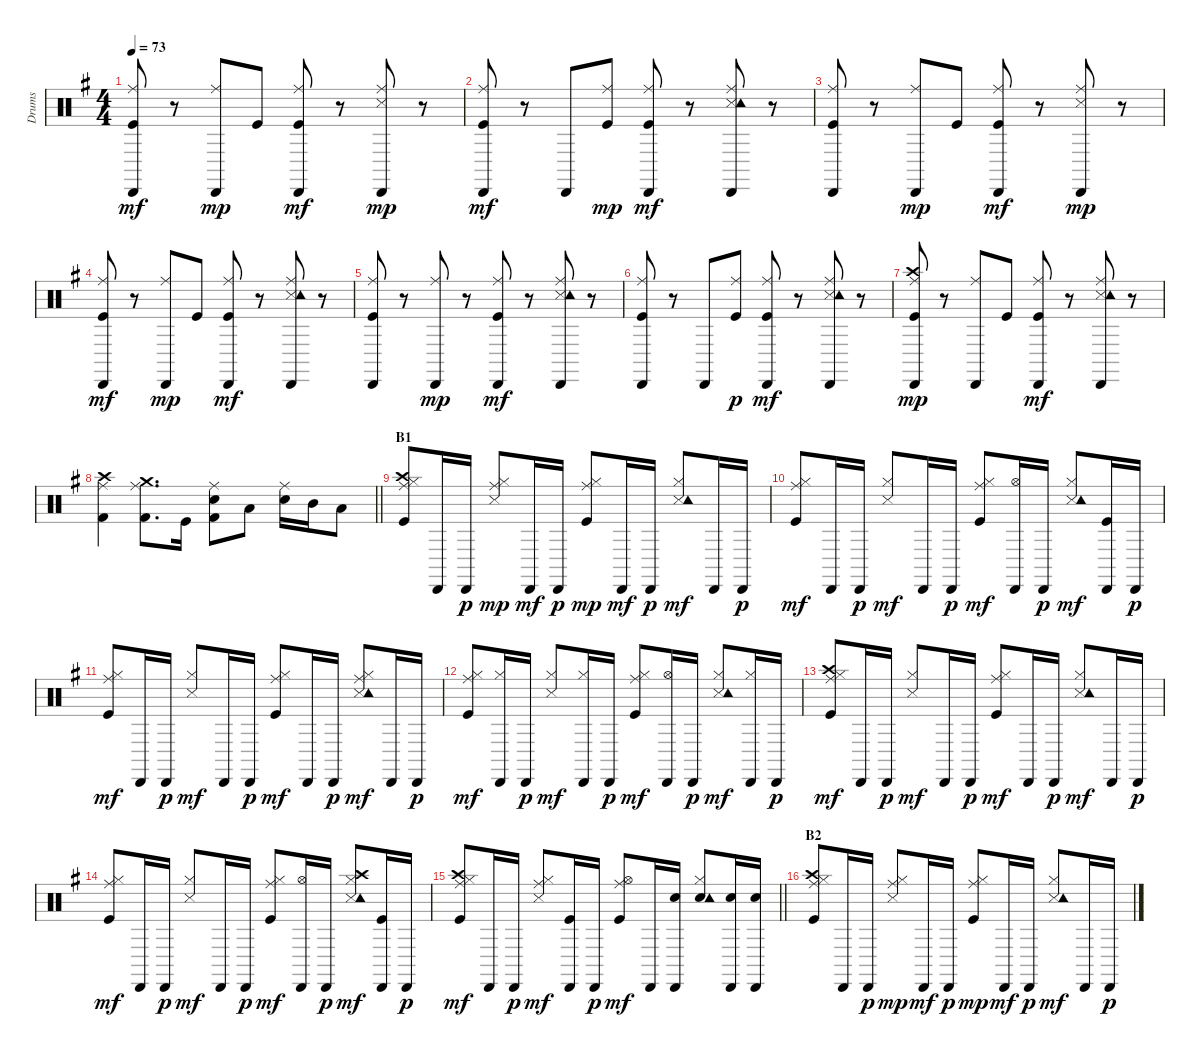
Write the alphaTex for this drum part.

\track ("Drums" "Drums") {instrument percussion}
\staff {score}
\articulation defaults
\ts (4 4)
\tempo 73
\clef neutral
\ks g
("Cabasa (hit)" "Ride (middle)" "Kick (hit)").8{dy mf} r.8 ("Cabasa (hit)" "Ride (middle)").8{dy mp} "Kick (hit)".8 ("Cabasa (hit)" "Ride (middle)" "Kick (hit)").8{dy mf} r.8 ("Cabasa (hit)" "Ride (middle)" "Snare (side stick) 3").8{dy mp} r.8 |
("Cabasa (hit)" "Ride (middle)" "Kick (hit)").8{dy mf} r.8 "Cabasa (hit)".8 ("Ride (middle)" "Kick (hit)").8{dy mp} ("Cabasa (hit)" "Ride (middle)" "Kick (hit)").8{dy mf} r.8 ("Cabasa (hit)" "Ride (middle)" "Snare (side stick) 3" "Tambourine (hit)").8 r.8 |
("Cabasa (hit)" "Ride (middle)" "Kick (hit)").8 r.8 ("Cabasa (hit)" "Ride (middle)").8{dy mp} "Kick (hit)".8 ("Cabasa (hit)" "Ride (middle)" "Kick (hit)").8{dy mf} r.8 ("Cabasa (hit)" "Ride (middle)" "Snare (side stick) 3").8{dy mp} r.8 |
("Cabasa (hit)" "Ride (middle)" "Kick (hit)").8{dy mf} r.8 ("Cabasa (hit)" "Ride (middle)").8{dy mp} "Kick (hit)".8 ("Cabasa (hit)" "Ride (middle)" "Kick (hit)").8{dy mf} r.8 ("Cabasa (hit)" "Ride (middle)" "Snare (side stick) 3" "Tambourine (hit)").8 r.8 |
("Cabasa (hit)" "Ride (middle)" "Kick (hit)").8 r.8 ("Cabasa (hit)" "Ride (middle)").8{dy mp} r.8 ("Cabasa (hit)" "Ride (middle)" "Kick (hit)").8{dy mf} r.8 ("Cabasa (hit)" "Ride (middle)" "Snare (side stick) 3" "Tambourine (hit)").8 r.8 |
("Cabasa (hit)" "Ride (middle)" "Kick (hit)").8 r.8 "Cabasa (hit)".8 ("Ride (middle)" "Kick (hit)").8{dy p} ("Cabasa (hit)" "Ride (middle)" "Kick (hit)").8{dy mf} r.8 ("Cabasa (hit)" "Ride (middle)" "Snare (side stick) 3" "Tambourine (hit)").8 r.8 |
("Cabasa (hit)" "Ride (middle)" "Kick (hit)" "Crash high (hit)").8{dy mp} r.8 ("Cabasa (hit)" "Ride (middle)").8 "Kick (hit)".8 ("Cabasa (hit)" "Ride (middle)" "Kick (hit)").8{dy mf} r.8 ("Cabasa (hit)" "Ride (middle)" "Snare (side stick) 3" "Tambourine (hit)").8 r.8 |
\barLineRight lightlight
("Crash high (hit)" "Ride (middle)" "Kick (hit) 2").4 ("Crash medium (hit)" "Ride (middle)" "Kick (hit) 2").8{d} "Kick (hit)".16 ("Ride (middle)" "Electric Snare (hit)" "Kick (hit) 2").8 "Low Tom (hit)".8 ("Ride (middle)" "Electric Snare (hit)").16 "Mid Tom (hit)".16 "Low Tom (hit)".8 |
\section ("" "B1")
("Crash high (hit)" "Hi-Hat (closed)" "Kick (hit)" "Ride (middle)").8 "Cabasa (hit)".16 "Cabasa (hit)".16{dy p} ("Hi-Hat (closed)" "Snare (side stick) 3" "Ride (middle)").8{dy mp} "Cabasa (hit)".16{dy mf} "Cabasa (hit)".16{dy p} ("Hi-Hat (closed)" "Kick (hit)" "Ride (middle)").8{dy mp} "Cabasa (hit)".16{dy mf} "Cabasa (hit)".16{dy p} ("Hi-Hat (closed)" "Snare (side stick) 3" "Tambourine (hit)").8{dy mf} "Cabasa (hit)".16 "Cabasa (hit)".16{dy p} |
("Hi-Hat (closed)" "Kick (hit)" "Ride (middle)").8{dy mf} "Cabasa (hit)".16 "Cabasa (hit)".16{dy p} ("Hi-Hat (closed)" "Snare (side stick) 3").8{dy mf} "Cabasa (hit)".16 "Cabasa (hit)".16{dy p} ("Hi-Hat (closed)" "Kick (hit)" "Ride (middle)").8{dy mf} ("Cabasa (hit)" "Hi-Hat (open)").16 "Cabasa (hit)".16{dy p} ("Hi-Hat (closed)" "Snare (side stick) 3" "Tambourine (hit)").8{dy mf} ("Cabasa (hit)" "Kick (hit)").16 "Cabasa (hit)".16{dy p} |
("Hi-Hat (closed)" "Kick (hit)" "Ride (middle)").8{dy mf} "Cabasa (hit)".16 "Cabasa (hit)".16{dy p} ("Hi-Hat (closed)" "Snare (side stick) 3").8{dy mf} "Cabasa (hit)".16 "Cabasa (hit)".16{dy p} ("Hi-Hat (closed)" "Kick (hit)" "Ride (middle)").8{dy mf} "Cabasa (hit)".16 "Cabasa (hit)".16{dy p} ("Hi-Hat (closed)" "Snare (side stick) 3" "Tambourine (hit)" "Ride (middle)").8{dy mf} "Cabasa (hit)".16 "Cabasa (hit)".16{dy p} |
("Hi-Hat (closed)" "Kick (hit)" "Ride (middle)").8{dy mf} ("Cabasa (hit)" "Hi-Hat (closed)").16 "Cabasa (hit)".16{dy p} ("Hi-Hat (closed)" "Snare (side stick) 3").8{dy mf} ("Cabasa (hit)" "Hi-Hat (closed)").16 "Cabasa (hit)".16{dy p} ("Hi-Hat (closed)" "Kick (hit)" "Ride (middle)").8{dy mf} ("Cabasa (hit)" "Hi-Hat (open)").16 "Cabasa (hit)".16{dy p} ("Hi-Hat (closed)" "Snare (side stick) 3" "Tambourine (hit)").8{dy mf} ("Cabasa (hit)" "Hi-Hat (closed)").16 "Cabasa (hit)".16{dy p} |
("Crash high (hit)" "Hi-Hat (closed)" "Kick (hit)" "Ride (middle)").8{dy mf} "Cabasa (hit)".16 "Cabasa (hit)".16{dy p} ("Hi-Hat (closed)" "Snare (side stick) 3").8{dy mf} "Cabasa (hit)".16 "Cabasa (hit)".16{dy p} ("Hi-Hat (closed)" "Kick (hit)" "Ride (middle)").8{dy mf} "Cabasa (hit)".16 "Cabasa (hit)".16{dy p} ("Hi-Hat (closed)" "Snare (side stick) 3" "Tambourine (hit)").8{dy mf} "Cabasa (hit)".16 "Cabasa (hit)".16{dy p} |
("Hi-Hat (closed)" "Kick (hit)" "Ride (middle)").8{dy mf} "Cabasa (hit)".16 "Cabasa (hit)".16{dy p} ("Hi-Hat (closed)" "Snare (side stick) 3").8{dy mf} "Cabasa (hit)".16 "Cabasa (hit)".16{dy p} ("Hi-Hat (closed)" "Kick (hit)" "Ride (middle)").8{dy mf} ("Cabasa (hit)" "Hi-Hat (open)").16 "Cabasa (hit)".16{dy p} ("Crash high (hit)" "Hi-Hat (closed)" "Snare (side stick) 3" "Tambourine (hit)").8{dy mf} ("Cabasa (hit)" "Kick (hit)").16 "Cabasa (hit)".16{dy p} |
\barLineRight lightlight
("Crash high (hit)" "Hi-Hat (closed)" "Kick (hit)" "Ride (middle)").8{dy mf} "Cabasa (hit)".16 "Cabasa (hit)".16{dy p} ("Hi-Hat (closed)" "Snare (side stick) 3" "Ride (middle)").8{dy mf} ("Cabasa (hit)" "Kick (hit)").16 "Cabasa (hit)".16{dy p} ("Hi-Hat (open)" "Kick (hit)" "Ride (middle)").8{dy mf} "Cabasa (hit)".16 ("Cabasa (hit)" "Electric Snare (hit)").16 ("Hi-Hat (closed)" "Electric Snare (hit)" "Tambourine (hit)").8 ("Cabasa (hit)" "Electric Snare (hit)").16 ("Cabasa (hit)" "Electric Snare (hit)").16 |
\section ("" "B2")
("Crash high (hit)" "Hi-Hat (closed)" "Kick (hit)" "Ride (middle)").8 "Cabasa (hit)".16 "Cabasa (hit)".16{dy p} ("Hi-Hat (closed)" "Snare (side stick) 3" "Ride (middle)").8{dy mp} "Cabasa (hit)".16{dy mf} "Cabasa (hit)".16{dy p} ("Hi-Hat (closed)" "Kick (hit)" "Ride (middle)").8{dy mp} "Cabasa (hit)".16{dy mf} "Cabasa (hit)".16{dy p} ("Hi-Hat (closed)" "Snare (side stick) 3" "Tambourine (hit)").8{dy mf} "Cabasa (hit)".16 "Cabasa (hit)".16{dy p}
